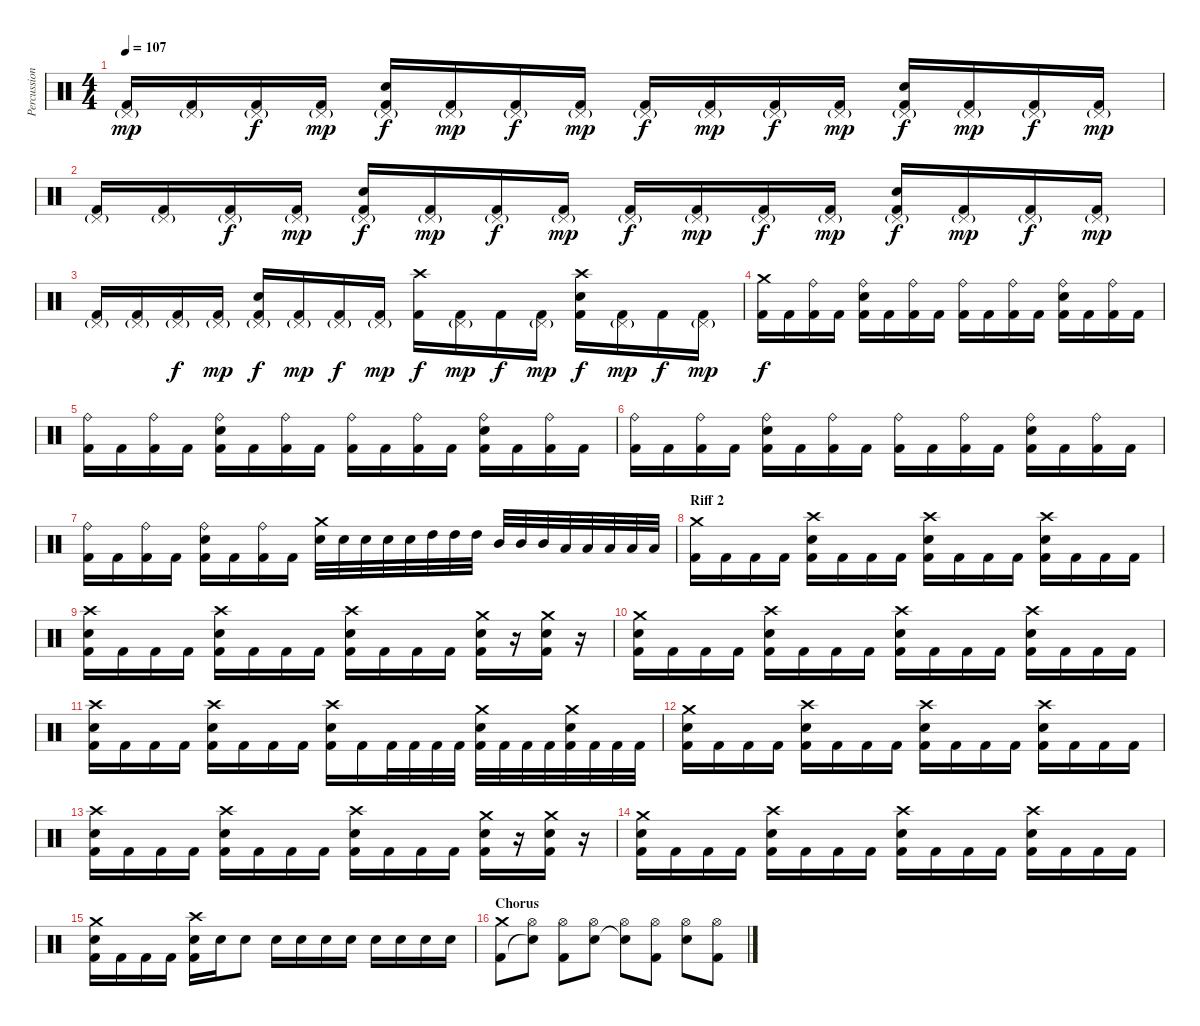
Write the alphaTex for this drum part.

\track ("Percussions" "Percussion") {instrument percussion}
\staff {score}
\articulation defaults
\ts (4 4)
\tempo 107
\clef neutral
\ks c
("Pedal Hi-Hat (hit)"{g} "Kick (hit) 2").16{dy mp} ("Pedal Hi-Hat (hit)"{g} "Kick (hit) 2").16 ("Pedal Hi-Hat (hit)"{g} "Kick (hit) 2").16{dy f} ("Pedal Hi-Hat (hit)"{g} "Kick (hit) 2").16{dy mp} ("Pedal Hi-Hat (hit)"{g} "Electric Snare (hit)" "Kick (hit) 2").16{dy f} ("Pedal Hi-Hat (hit)"{g} "Kick (hit) 2").16{dy mp} ("Pedal Hi-Hat (hit)"{g} "Kick (hit) 2").16{dy f} ("Pedal Hi-Hat (hit)"{g} "Kick (hit) 2").16{dy mp} ("Pedal Hi-Hat (hit)"{g} "Kick (hit) 2").16{dy f} ("Pedal Hi-Hat (hit)"{g} "Kick (hit) 2").16{dy mp} ("Pedal Hi-Hat (hit)"{g} "Kick (hit) 2").16{dy f} ("Pedal Hi-Hat (hit)"{g} "Kick (hit) 2").16{dy mp} ("Pedal Hi-Hat (hit)"{g} "Electric Snare (hit)" "Kick (hit) 2").16{dy f} ("Pedal Hi-Hat (hit)"{g} "Kick (hit) 2").16{dy mp} ("Pedal Hi-Hat (hit)"{g} "Kick (hit) 2").16{dy f} ("Pedal Hi-Hat (hit)"{g} "Kick (hit) 2").16{dy mp} |
("Pedal Hi-Hat (hit)"{g} "Kick (hit) 2").16 ("Pedal Hi-Hat (hit)"{g} "Kick (hit) 2").16 ("Pedal Hi-Hat (hit)"{g} "Kick (hit) 2").16{dy f} ("Pedal Hi-Hat (hit)"{g} "Kick (hit) 2").16{dy mp} ("Pedal Hi-Hat (hit)"{g} "Electric Snare (hit)" "Kick (hit) 2").16{dy f} ("Pedal Hi-Hat (hit)"{g} "Kick (hit) 2").16{dy mp} ("Pedal Hi-Hat (hit)"{g} "Kick (hit) 2").16{dy f} ("Pedal Hi-Hat (hit)"{g} "Kick (hit) 2").16{dy mp} ("Pedal Hi-Hat (hit)"{g} "Kick (hit) 2").16{dy f} ("Pedal Hi-Hat (hit)"{g} "Kick (hit) 2").16{dy mp} ("Pedal Hi-Hat (hit)"{g} "Kick (hit) 2").16{dy f} ("Pedal Hi-Hat (hit)"{g} "Kick (hit) 2").16{dy mp} ("Pedal Hi-Hat (hit)"{g} "Electric Snare (hit)" "Kick (hit) 2").16{dy f} ("Pedal Hi-Hat (hit)"{g} "Kick (hit) 2").16{dy mp} ("Pedal Hi-Hat (hit)"{g} "Kick (hit) 2").16{dy f} ("Pedal Hi-Hat (hit)"{g} "Kick (hit) 2").16{dy mp} |
("Pedal Hi-Hat (hit)"{g} "Kick (hit) 2").16 ("Pedal Hi-Hat (hit)"{g} "Kick (hit) 2").16 ("Pedal Hi-Hat (hit)"{g} "Kick (hit) 2").16{dy f} ("Pedal Hi-Hat (hit)"{g} "Kick (hit) 2").16{dy mp} ("Pedal Hi-Hat (hit)"{g} "Electric Snare (hit)" "Kick (hit) 2").16{dy f} ("Pedal Hi-Hat (hit)"{g} "Kick (hit) 2").16{dy mp} ("Pedal Hi-Hat (hit)"{g} "Kick (hit) 2").16{dy f} ("Pedal Hi-Hat (hit)"{g} "Kick (hit) 2").16{dy mp} ("Crash high (hit)" "Kick (hit) 2").16{dy f} ("Pedal Hi-Hat (hit)"{g} "Kick (hit) 2").16{dy mp} "Kick (hit) 2".16{dy f} ("Pedal Hi-Hat (hit)"{g} "Kick (hit) 2").16{dy mp} ("Crash high (hit)" "Electric Snare (hit)" "Kick (hit) 2").16{dy f} ("Pedal Hi-Hat (hit)"{g} "Kick (hit) 2").16{dy mp} "Kick (hit) 2".16{dy f} ("Pedal Hi-Hat (hit)"{g} "Kick (hit) 2").16{dy mp} |
("Crash medium (hit)" "Kick (hit) 2").16{dy f} "Kick (hit) 2".16 ("Ride (bell)" "Kick (hit) 2").16 "Kick (hit) 2".16 ("Ride (bell)" "Electric Snare (hit)" "Kick (hit) 2").16 "Kick (hit) 2".16 ("Ride (bell)" "Kick (hit) 2").16 "Kick (hit) 2".16 ("Ride (bell)" "Kick (hit) 2").16 "Kick (hit) 2".16 ("Ride (bell)" "Kick (hit) 2").16 "Kick (hit) 2".16 ("Ride (bell)" "Electric Snare (hit)" "Kick (hit) 2").16 "Kick (hit) 2".16 ("Ride (bell)" "Kick (hit) 2").16 "Kick (hit) 2".16 |
("Ride (bell)" "Kick (hit) 2").16 "Kick (hit) 2".16 ("Ride (bell)" "Kick (hit) 2").16 "Kick (hit) 2".16 ("Ride (bell)" "Electric Snare (hit)" "Kick (hit) 2").16 "Kick (hit) 2".16 ("Ride (bell)" "Kick (hit) 2").16 "Kick (hit) 2".16 ("Ride (bell)" "Kick (hit) 2").16 "Kick (hit) 2".16 ("Ride (bell)" "Kick (hit) 2").16 "Kick (hit) 2".16 ("Ride (bell)" "Electric Snare (hit)" "Kick (hit) 2").16 "Kick (hit) 2".16 ("Ride (bell)" "Kick (hit) 2").16 "Kick (hit) 2".16 |
("Ride (bell)" "Kick (hit) 2").16 "Kick (hit) 2".16 ("Ride (bell)" "Kick (hit) 2").16 "Kick (hit) 2".16 ("Ride (bell)" "Electric Snare (hit)" "Kick (hit) 2").16 "Kick (hit) 2".16 ("Ride (bell)" "Kick (hit) 2").16 "Kick (hit) 2".16 ("Ride (bell)" "Kick (hit) 2").16 "Kick (hit) 2".16 ("Ride (bell)" "Kick (hit) 2").16 "Kick (hit) 2".16 ("Ride (bell)" "Electric Snare (hit)" "Kick (hit) 2").16 "Kick (hit) 2".16 ("Ride (bell)" "Kick (hit) 2").16 "Kick (hit) 2".16 |
("Ride (bell)" "Kick (hit) 2").16 "Kick (hit) 2".16 ("Ride (bell)" "Kick (hit) 2").16 "Kick (hit) 2".16 ("Ride (bell)" "Electric Snare (hit)" "Kick (hit) 2").16 "Kick (hit) 2".16 ("Ride (bell)" "Kick (hit) 2").16 "Kick (hit) 2".16 ("Crash medium (hit)" "Electric Snare (hit)").32 "Electric Snare (hit)".32 "Electric Snare (hit)".32 "Electric Snare (hit)".32 "Electric Snare (hit)".32 "High Tom (hit)".32 "High Tom (hit)".32 "High Tom (hit)".32 "Mid Tom (hit)".32 "Mid Tom (hit)".32 "Mid Tom (hit)".32 "Low Tom (hit)".32 "Low Tom (hit)".32 "Low Tom (hit)".32 "Low Tom (hit)".32 "Low Tom (hit)".32 |
\section ("" "Riff 2")
("Crash medium (hit)" "Kick (hit) 2").16 "Kick (hit) 2".16 "Kick (hit) 2".16 "Kick (hit) 2".16 ("Crash high (hit)" "Electric Snare (hit)" "Kick (hit) 2").16 "Kick (hit) 2".16 "Kick (hit) 2".16 "Kick (hit) 2".16 ("Crash high (hit)" "Electric Snare (hit)" "Kick (hit) 2").16 "Kick (hit) 2".16 "Kick (hit) 2".16 "Kick (hit) 2".16 ("Crash high (hit)" "Electric Snare (hit)" "Kick (hit) 2").16 "Kick (hit) 2".16 "Kick (hit) 2".16 "Kick (hit) 2".16 |
("Crash high (hit)" "Electric Snare (hit)" "Kick (hit) 2").16 "Kick (hit) 2".16 "Kick (hit) 2".16 "Kick (hit) 2".16 ("Crash high (hit)" "Electric Snare (hit)" "Kick (hit) 2").16 "Kick (hit) 2".16 "Kick (hit) 2".16 "Kick (hit) 2".16 ("Crash high (hit)" "Electric Snare (hit)" "Kick (hit) 2").16 "Kick (hit) 2".16 "Kick (hit) 2".16 "Kick (hit) 2".16 ("Crash medium (hit)" "Electric Snare (hit)" "Kick (hit) 2").16 r.16 ("Crash medium (hit)" "Electric Snare (hit)" "Kick (hit) 2").16 r.16 |
("Crash medium (hit)" "Electric Snare (hit)" "Kick (hit) 2").16 "Kick (hit) 2".16 "Kick (hit) 2".16 "Kick (hit) 2".16 ("Crash high (hit)" "Electric Snare (hit)" "Kick (hit) 2").16 "Kick (hit) 2".16 "Kick (hit) 2".16 "Kick (hit) 2".16 ("Crash high (hit)" "Electric Snare (hit)" "Kick (hit) 2").16 "Kick (hit) 2".16 "Kick (hit) 2".16 "Kick (hit) 2".16 ("Crash high (hit)" "Electric Snare (hit)" "Kick (hit) 2").16 "Kick (hit) 2".16 "Kick (hit) 2".16 "Kick (hit) 2".16 |
("Crash high (hit)" "Electric Snare (hit)" "Kick (hit) 2").16 "Kick (hit) 2".16 "Kick (hit) 2".16 "Kick (hit) 2".16 ("Crash high (hit)" "Electric Snare (hit)" "Kick (hit) 2").16 "Kick (hit) 2".16 "Kick (hit) 2".16 "Kick (hit) 2".16 ("Crash high (hit)" "Electric Snare (hit)" "Kick (hit) 2").16 "Kick (hit) 2".16 "Kick (hit) 2".32 "Kick (hit) 2".32 "Kick (hit) 2".32 "Kick (hit) 2".32 ("Crash medium (hit)" "Electric Snare (hit)" "Kick (hit) 2").32 "Kick (hit) 2".32 "Kick (hit) 2".32 "Kick (hit) 2".32 ("Crash medium (hit)" "Electric Snare (hit)" "Kick (hit) 2").32 "Kick (hit) 2".32 "Kick (hit) 2".32 "Kick (hit) 2".32 |
("Crash medium (hit)" "Electric Snare (hit)" "Kick (hit) 2").16 "Kick (hit) 2".16 "Kick (hit) 2".16 "Kick (hit) 2".16 ("Crash high (hit)" "Electric Snare (hit)" "Kick (hit) 2").16 "Kick (hit) 2".16 "Kick (hit) 2".16 "Kick (hit) 2".16 ("Crash high (hit)" "Electric Snare (hit)" "Kick (hit) 2").16 "Kick (hit) 2".16 "Kick (hit) 2".16 "Kick (hit) 2".16 ("Crash high (hit)" "Electric Snare (hit)" "Kick (hit) 2").16 "Kick (hit) 2".16 "Kick (hit) 2".16 "Kick (hit) 2".16 |
("Crash high (hit)" "Electric Snare (hit)" "Kick (hit) 2").16 "Kick (hit) 2".16 "Kick (hit) 2".16 "Kick (hit) 2".16 ("Crash high (hit)" "Electric Snare (hit)" "Kick (hit) 2").16 "Kick (hit) 2".16 "Kick (hit) 2".16 "Kick (hit) 2".16 ("Crash high (hit)" "Electric Snare (hit)" "Kick (hit) 2").16 "Kick (hit) 2".16 "Kick (hit) 2".16 "Kick (hit) 2".16 ("Crash medium (hit)" "Electric Snare (hit)" "Kick (hit) 2").16 r.16 ("Crash medium (hit)" "Electric Snare (hit)" "Kick (hit) 2").16 r.16 |
("Crash medium (hit)" "Electric Snare (hit)" "Kick (hit) 2").16 "Kick (hit) 2".16 "Kick (hit) 2".16 "Kick (hit) 2".16 ("Crash high (hit)" "Electric Snare (hit)" "Kick (hit) 2").16 "Kick (hit) 2".16 "Kick (hit) 2".16 "Kick (hit) 2".16 ("Crash high (hit)" "Electric Snare (hit)" "Kick (hit) 2").16 "Kick (hit) 2".16 "Kick (hit) 2".16 "Kick (hit) 2".16 ("Crash high (hit)" "Electric Snare (hit)" "Kick (hit) 2").16 "Kick (hit) 2".16 "Kick (hit) 2".16 "Kick (hit) 2".16 |
("Crash medium (hit)" "Electric Snare (hit)" "Kick (hit) 2").16 "Kick (hit) 2".16 "Kick (hit) 2".16 "Kick (hit) 2".16 ("Crash high (hit)" "Electric Snare (hit)" "Kick (hit) 2").16 "Electric Snare (hit)".16 "Electric Snare (hit)".8 "Electric Snare (hit)".16 "Electric Snare (hit)".16 "Electric Snare (hit)".16 "Electric Snare (hit)".16 "Electric Snare (hit)".16 "Electric Snare (hit)".16 "Electric Snare (hit)".16 "Electric Snare (hit)".16 |
\section ("" "Chorus")
("Crash medium (hit)" "Kick (hit) 2").8 ("Hi-Hat (open)" "Snare (hit)"{t}).8 ("Hi-Hat (open)" "Kick (hit) 2").8 ("Hi-Hat (open)" "Electric Snare (hit)").8 ("Hi-Hat (open)" "Snare (hit)"{t}).8 ("Hi-Hat (open)" "Kick (hit) 2").8 ("Hi-Hat (open)" "Electric Snare (hit)").8 ("Hi-Hat (open)" "Kick (hit) 2").8
